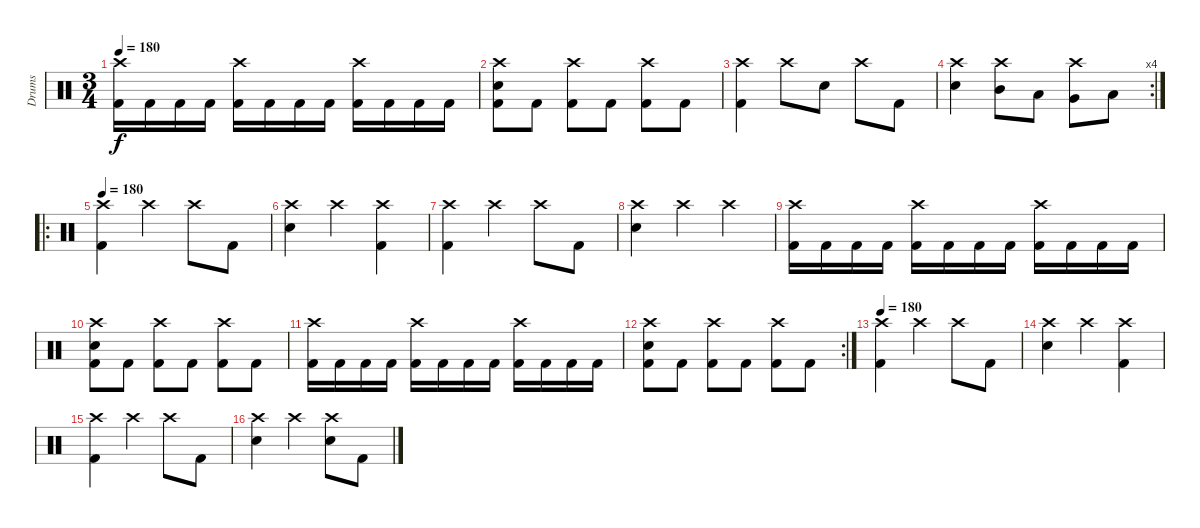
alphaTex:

\track ("Drums" "Drums") {instrument percussion}
\staff {score}
\articulation defaults
\ts (3 4)
\tempo 180
\clef neutral
\ks c
("Crash high (hit)" "Kick (hit) 2").16{dy f} "Kick (hit) 2".16 "Kick (hit) 2".16 "Kick (hit) 2".16 ("Crash high (hit)" "Kick (hit) 2").16 "Kick (hit) 2".16 "Kick (hit) 2".16 "Kick (hit) 2".16 ("Crash high (hit)" "Kick (hit) 2").16 "Kick (hit) 2".16 "Kick (hit) 2".16 "Kick (hit) 2".16 |
("Crash high (hit)" "Electric Snare (hit)" "Kick (hit) 2").8 "Kick (hit) 2".8 ("Crash high (hit)" "Kick (hit) 2").8 "Kick (hit) 2".8 ("Crash high (hit)" "Kick (hit) 2").8 "Kick (hit) 2".8 |
("Crash high (hit)" "Kick (hit) 2").4 "Crash high (hit)".8 "Electric Snare (hit)".8 "Crash high (hit)".8 "Kick (hit) 2".8 |
\rc 4
("Crash high (hit)" "Electric Snare (hit)").4 ("Crash high (hit)" "Mid Tom (hit)").8 "Low Tom (hit)".8 ("Crash high (hit)" "Very Low Tom (hit)").8 "Low Floor Tom (hit)".8 |
\ro
\tempo 180
("Crash high (hit)" "Kick (hit) 2").4 "Crash high (hit)".4 "Crash high (hit)".8 "Kick (hit) 2".8 |
("Crash high (hit)" "Electric Snare (hit)").4 "Crash high (hit)".4 ("Crash high (hit)" "Kick (hit) 2").4 |
("Crash high (hit)" "Kick (hit) 2").4 "Crash high (hit)".4 "Crash high (hit)".8 "Kick (hit) 2".8 |
("Crash high (hit)" "Electric Snare (hit)").4 "Crash high (hit)".4 "Crash high (hit)".4 |
("Crash high (hit)" "Kick (hit) 2").16 "Kick (hit) 2".16 "Kick (hit) 2".16 "Kick (hit) 2".16 ("Crash high (hit)" "Kick (hit) 2").16 "Kick (hit) 2".16 "Kick (hit) 2".16 "Kick (hit) 2".16 ("Crash high (hit)" "Kick (hit) 2").16 "Kick (hit) 2".16 "Kick (hit) 2".16 "Kick (hit) 2".16 |
("Crash high (hit)" "Electric Snare (hit)" "Kick (hit) 2").8 "Kick (hit) 2".8 ("Crash high (hit)" "Kick (hit) 2").8 "Kick (hit) 2".8 ("Crash high (hit)" "Kick (hit) 2").8 "Kick (hit) 2".8 |
("Crash high (hit)" "Kick (hit) 2").16 "Kick (hit) 2".16 "Kick (hit) 2".16 "Kick (hit) 2".16 ("Crash high (hit)" "Kick (hit) 2").16 "Kick (hit) 2".16 "Kick (hit) 2".16 "Kick (hit) 2".16 ("Crash high (hit)" "Kick (hit) 2").16 "Kick (hit) 2".16 "Kick (hit) 2".16 "Kick (hit) 2".16 |
\rc 2
("Crash high (hit)" "Electric Snare (hit)" "Kick (hit) 2").8 "Kick (hit) 2".8 ("Crash high (hit)" "Kick (hit) 2").8 "Kick (hit) 2".8 ("Crash high (hit)" "Kick (hit) 2").8 "Kick (hit) 2".8 |
\tempo 180
("Crash high (hit)" "Kick (hit) 2").4 "Crash high (hit)".4 "Crash high (hit)".8 "Kick (hit) 2".8 |
("Crash high (hit)" "Electric Snare (hit)").4 "Crash high (hit)".4 ("Crash high (hit)" "Kick (hit) 2").4 |
("Crash high (hit)" "Kick (hit) 2").4 "Crash high (hit)".4 "Crash high (hit)".8 "Kick (hit) 2".8 |
("Crash high (hit)" "Electric Snare (hit)").4 "Crash high (hit)".4 ("Crash high (hit)" "Electric Snare (hit)").8 "Kick (hit) 2".8
